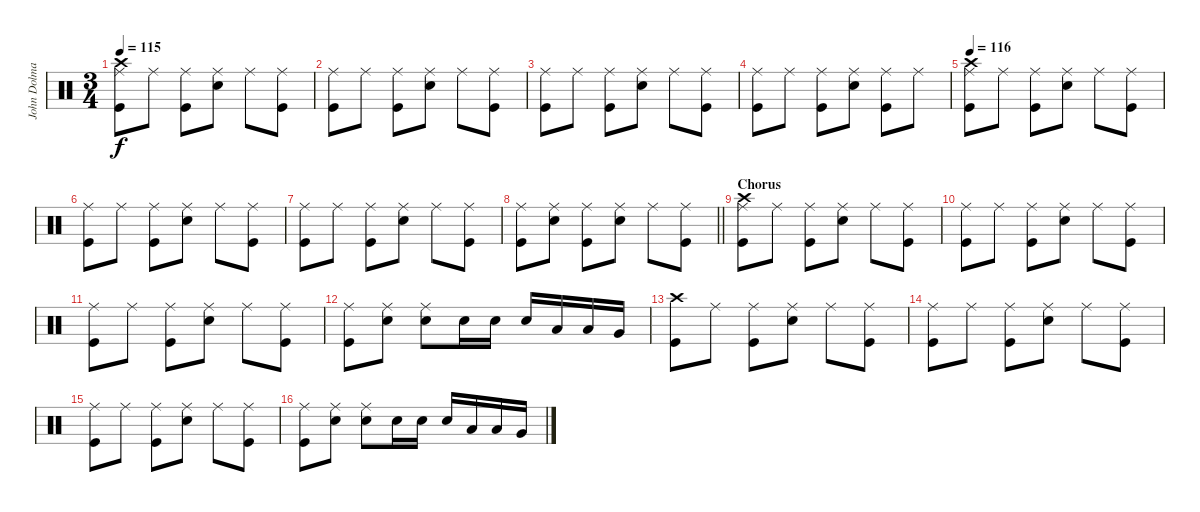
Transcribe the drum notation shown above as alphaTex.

\track ("John Dolmayan - Drums" "John Dolma") {instrument percussion}
\staff
\articulation defaults
\ts (3 4)
\tempo 115
\clef neutral
\ks c
("Crash high (hit)" "Ride (middle)" "Kick (hit)").8{dy f} "Ride (middle)".8 ("Ride (middle)" "Kick (hit)").8 ("Ride (middle)" "Snare (hit) 2").8 "Ride (middle)".8 ("Ride (middle)" "Kick (hit)").8 |
("Ride (middle)" "Kick (hit)").8 "Ride (middle)".8 ("Ride (middle)" "Kick (hit)").8 ("Ride (middle)" "Snare (hit) 2").8 "Ride (middle)".8 ("Ride (middle)" "Kick (hit)").8 |
("Ride (middle)" "Kick (hit)").8 "Ride (middle)".8 ("Ride (middle)" "Kick (hit)").8 ("Ride (middle)" "Snare (hit) 2").8 "Ride (middle)".8 ("Ride (middle)" "Kick (hit)").8 |
("Ride (middle)" "Kick (hit)").8 "Ride (middle)".8 ("Ride (middle)" "Kick (hit)").8 ("Ride (middle)" "Snare (hit) 2").8 ("Ride (middle)" "Kick (hit)").8 "Ride (middle)".8 |
\tempo 116
("Crash high (hit)" "Ride (middle)" "Kick (hit)").8 "Ride (middle)".8 ("Ride (middle)" "Kick (hit)").8 ("Ride (middle)" "Snare (hit) 2").8 "Ride (middle)".8 ("Ride (middle)" "Kick (hit)").8 |
("Ride (middle)" "Kick (hit)").8 "Ride (middle)".8 ("Ride (middle)" "Kick (hit)").8 ("Ride (middle)" "Snare (hit) 2").8 "Ride (middle)".8 ("Ride (middle)" "Kick (hit)").8 |
("Ride (middle)" "Kick (hit)").8 "Ride (middle)".8 ("Ride (middle)" "Kick (hit)").8 ("Ride (middle)" "Snare (hit) 2").8 "Ride (middle)".8 ("Ride (middle)" "Kick (hit)").8 |
\barLineRight lightlight
("Ride (middle)" "Kick (hit)").8 ("Ride (middle)" "Snare (hit) 2").8 ("Ride (middle)" "Kick (hit)").8 ("Ride (middle)" "Snare (hit) 2").8 "Ride (middle)".8 ("Ride (middle)" "Kick (hit)").8 |
\section ("" "Chorus")
("Crash high (hit)" "Ride (middle)" "Kick (hit)").8 "Ride (middle)".8 ("Ride (middle)" "Kick (hit)").8 ("Ride (middle)" "Snare (hit) 2").8 "Ride (middle)".8 ("Ride (middle)" "Kick (hit)").8 |
("Ride (middle)" "Kick (hit)").8 "Ride (middle)".8 ("Ride (middle)" "Kick (hit)").8 ("Ride (middle)" "Snare (hit) 2").8 "Ride (middle)".8 ("Ride (middle)" "Kick (hit)").8 |
("Ride (middle)" "Kick (hit)").8 "Ride (middle)".8 ("Ride (middle)" "Kick (hit)").8 ("Ride (middle)" "Snare (hit) 2").8 "Ride (middle)".8 ("Ride (middle)" "Kick (hit)").8 |
("Ride (middle)" "Kick (hit)").8 ("Ride (middle)" "Snare (hit) 2").8 ("Ride (middle)" "Snare (hit) 2").8 "Snare (hit) 2".16 "Snare (hit) 2".16 "Snare (hit) 2".16 "Low Tom (hit)".16 "Low Tom (hit)".16 "Very Low Tom (hit)".16 |
("Crash high (hit)" "Kick (hit)").8 "Ride (middle)".8 ("Ride (middle)" "Kick (hit)").8 ("Ride (middle)" "Snare (hit) 2").8 "Ride (middle)".8 ("Ride (middle)" "Kick (hit)").8 |
("Ride (middle)" "Kick (hit)").8 "Ride (middle)".8 ("Ride (middle)" "Kick (hit)").8 ("Ride (middle)" "Snare (hit) 2").8 "Ride (middle)".8 ("Ride (middle)" "Kick (hit)").8 |
("Ride (middle)" "Kick (hit)").8 "Ride (middle)".8 ("Ride (middle)" "Kick (hit)").8 ("Ride (middle)" "Snare (hit) 2").8 "Ride (middle)".8 ("Ride (middle)" "Kick (hit)").8 |
("Ride (middle)" "Kick (hit)").8 ("Ride (middle)" "Snare (hit) 2").8 ("Ride (middle)" "Snare (hit) 2").8 "Snare (hit) 2".16 "Snare (hit) 2".16 "Snare (hit) 2".16 "Low Tom (hit)".16 "Low Tom (hit)".16 "Very Low Tom (hit)".16
